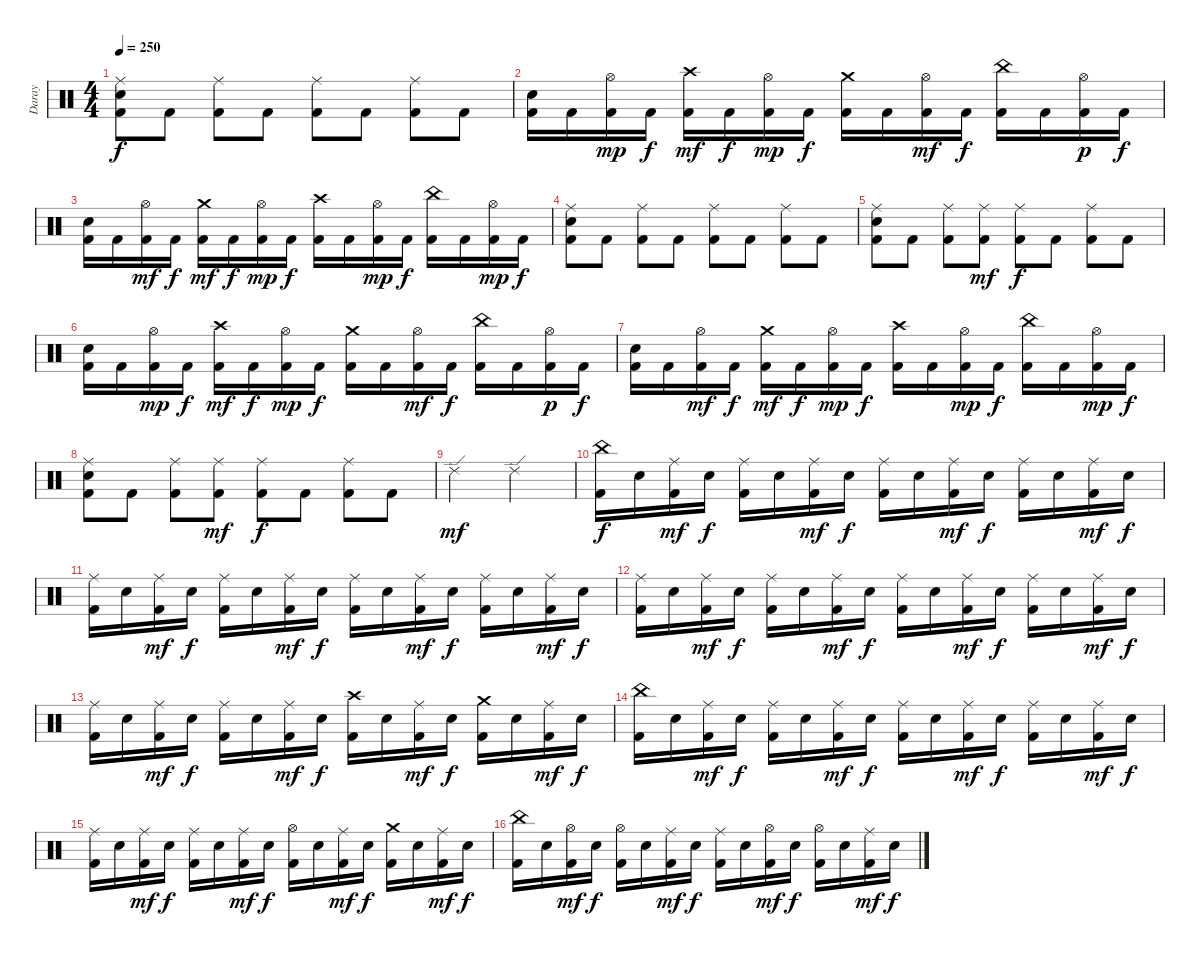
\track ("Daray" "Daray") {instrument percussion}
\staff {score}
\articulation defaults
\ts (4 4)
\tempo 250
\clef neutral
\ks c
("Ride (middle)" "Electric Snare (hit)" "Kick (hit) 2").8{dy f} "Kick (hit) 2".8 ("Ride (middle)" "Kick (hit) 2").8 "Kick (hit) 2".8 ("Ride (middle)" "Kick (hit) 2").8 "Kick (hit) 2".8 ("Ride (middle)" "Kick (hit) 2").8 "Kick (hit) 2".8 |
("Electric Snare (hit)" "Kick (hit) 2").16 "Kick (hit) 2".16 ("Hi-Hat (open)" "Kick (hit) 2").16{dy mp} "Kick (hit) 2".16{dy f} ("Crash high (hit)" "Kick (hit) 2").16{dy mf} "Kick (hit) 2".16{dy f} ("Hi-Hat (open)" "Kick (hit) 2").16{dy mp} "Kick (hit) 2".16{dy f} ("Crash medium (hit)" "Kick (hit) 2").16 "Kick (hit) 2".16 ("Hi-Hat (open)" "Kick (hit) 2").16{dy mf} "Kick (hit) 2".16{dy f} ("China (hit)" "Kick (hit) 2").16 "Kick (hit) 2".16 ("Hi-Hat (open)" "Kick (hit) 2").16{dy p} "Kick (hit) 2".16{dy f} |
("Electric Snare (hit)" "Kick (hit) 2").16 "Kick (hit) 2".16 ("Hi-Hat (open)" "Kick (hit) 2").16{dy mf} "Kick (hit) 2".16{dy f} ("Crash medium (hit)" "Kick (hit) 2").16{dy mf} "Kick (hit) 2".16{dy f} ("Hi-Hat (open)" "Kick (hit) 2").16{dy mp} "Kick (hit) 2".16{dy f} ("Crash high (hit)" "Kick (hit) 2").16 "Kick (hit) 2".16 ("Hi-Hat (open)" "Kick (hit) 2").16{dy mp} "Kick (hit) 2".16{dy f} ("China (hit)" "Kick (hit) 2").16 "Kick (hit) 2".16 ("Hi-Hat (open)" "Kick (hit) 2").16{dy mp} "Kick (hit) 2".16{dy f} |
("Ride (middle)" "Electric Snare (hit)" "Kick (hit) 2").8 "Kick (hit) 2".8 ("Ride (middle)" "Kick (hit) 2").8 "Kick (hit) 2".8 ("Ride (middle)" "Kick (hit) 2").8 "Kick (hit) 2".8 ("Ride (middle)" "Kick (hit) 2").8 "Kick (hit) 2".8 |
("Ride (middle)" "Electric Snare (hit)" "Kick (hit) 2").8 "Kick (hit) 2".8 ("Ride (middle)" "Kick (hit) 2").8 ("Ride (middle)" "Kick (hit) 2").8{dy mf} ("Ride (middle)" "Kick (hit) 2").8{dy f} "Kick (hit) 2".8 ("Ride (middle)" "Kick (hit) 2").8 "Kick (hit) 2".8 |
("Electric Snare (hit)" "Kick (hit) 2").16 "Kick (hit) 2".16 ("Hi-Hat (open)" "Kick (hit) 2").16{dy mp} "Kick (hit) 2".16{dy f} ("Crash high (hit)" "Kick (hit) 2").16{dy mf} "Kick (hit) 2".16{dy f} ("Hi-Hat (open)" "Kick (hit) 2").16{dy mp} "Kick (hit) 2".16{dy f} ("Crash medium (hit)" "Kick (hit) 2").16 "Kick (hit) 2".16 ("Hi-Hat (open)" "Kick (hit) 2").16{dy mf} "Kick (hit) 2".16{dy f} ("China (hit)" "Kick (hit) 2").16 "Kick (hit) 2".16 ("Hi-Hat (open)" "Kick (hit) 2").16{dy p} "Kick (hit) 2".16{dy f} |
("Electric Snare (hit)" "Kick (hit) 2").16 "Kick (hit) 2".16 ("Hi-Hat (open)" "Kick (hit) 2").16{dy mf} "Kick (hit) 2".16{dy f} ("Crash medium (hit)" "Kick (hit) 2").16{dy mf} "Kick (hit) 2".16{dy f} ("Hi-Hat (open)" "Kick (hit) 2").16{dy mp} "Kick (hit) 2".16{dy f} ("Crash high (hit)" "Kick (hit) 2").16 "Kick (hit) 2".16 ("Hi-Hat (open)" "Kick (hit) 2").16{dy mp} "Kick (hit) 2".16{dy f} ("China (hit)" "Kick (hit) 2").16 "Kick (hit) 2".16 ("Hi-Hat (open)" "Kick (hit) 2").16{dy mp} "Kick (hit) 2".16{dy f} |
("Ride (middle)" "Electric Snare (hit)" "Kick (hit) 2").8 "Kick (hit) 2".8 ("Ride (middle)" "Kick (hit) 2").8 ("Ride (middle)" "Kick (hit) 2").8{dy mf} ("Ride (middle)" "Kick (hit) 2").8{dy f} "Kick (hit) 2".8 ("Ride (middle)" "Kick (hit) 2").8 "Kick (hit) 2".8 |
"Ride (edge) 2".2{dy mf} "Ride (edge) 2".2 |
("China (hit)" "Kick (hit) 2").16{dy f} "Electric Snare (hit)".16 ("Ride (middle)" "Kick (hit) 2").16{dy mf} "Electric Snare (hit)".16{dy f} ("Ride (middle)" "Kick (hit) 2").16 "Electric Snare (hit)".16 ("Ride (middle)" "Kick (hit) 2").16{dy mf} "Electric Snare (hit)".16{dy f} ("Ride (middle)" "Kick (hit) 2").16 "Electric Snare (hit)".16 ("Ride (middle)" "Kick (hit) 2").16{dy mf} "Electric Snare (hit)".16{dy f} ("Ride (middle)" "Kick (hit) 2").16 "Electric Snare (hit)".16 ("Ride (middle)" "Kick (hit) 2").16{dy mf} "Electric Snare (hit)".16{dy f} |
("Ride (middle)" "Kick (hit) 2").16 "Electric Snare (hit)".16 ("Ride (middle)" "Kick (hit) 2").16{dy mf} "Electric Snare (hit)".16{dy f} ("Ride (middle)" "Kick (hit) 2").16 "Electric Snare (hit)".16 ("Ride (middle)" "Kick (hit) 2").16{dy mf} "Electric Snare (hit)".16{dy f} ("Ride (middle)" "Kick (hit) 2").16 "Electric Snare (hit)".16 ("Ride (middle)" "Kick (hit) 2").16{dy mf} "Electric Snare (hit)".16{dy f} ("Ride (middle)" "Kick (hit) 2").16 "Electric Snare (hit)".16 ("Ride (middle)" "Kick (hit) 2").16{dy mf} "Electric Snare (hit)".16{dy f} |
("Ride (middle)" "Kick (hit) 2").16 "Electric Snare (hit)".16 ("Ride (middle)" "Kick (hit) 2").16{dy mf} "Electric Snare (hit)".16{dy f} ("Ride (middle)" "Kick (hit) 2").16 "Electric Snare (hit)".16 ("Ride (middle)" "Kick (hit) 2").16{dy mf} "Electric Snare (hit)".16{dy f} ("Ride (middle)" "Kick (hit) 2").16 "Electric Snare (hit)".16 ("Ride (middle)" "Kick (hit) 2").16{dy mf} "Electric Snare (hit)".16{dy f} ("Ride (middle)" "Kick (hit) 2").16 "Electric Snare (hit)".16 ("Ride (middle)" "Kick (hit) 2").16{dy mf} "Electric Snare (hit)".16{dy f} |
("Ride (middle)" "Kick (hit) 2").16 "Electric Snare (hit)".16 ("Ride (middle)" "Kick (hit) 2").16{dy mf} "Electric Snare (hit)".16{dy f} ("Ride (middle)" "Kick (hit) 2").16 "Electric Snare (hit)".16 ("Ride (middle)" "Kick (hit) 2").16{dy mf} "Electric Snare (hit)".16{dy f} ("Crash high (hit)" "Kick (hit) 2").16 "Electric Snare (hit)".16 ("Ride (middle)" "Kick (hit) 2").16{dy mf} "Electric Snare (hit)".16{dy f} ("Crash medium (hit)" "Kick (hit) 2").16 "Electric Snare (hit)".16 ("Ride (middle)" "Kick (hit) 2").16{dy mf} "Electric Snare (hit)".16{dy f} |
("China (hit)" "Kick (hit) 2").16 "Electric Snare (hit)".16 ("Ride (middle)" "Kick (hit) 2").16{dy mf} "Electric Snare (hit)".16{dy f} ("Ride (middle)" "Kick (hit) 2").16 "Electric Snare (hit)".16 ("Ride (middle)" "Kick (hit) 2").16{dy mf} "Electric Snare (hit)".16{dy f} ("Ride (middle)" "Kick (hit) 2").16 "Electric Snare (hit)".16 ("Ride (middle)" "Kick (hit) 2").16{dy mf} "Electric Snare (hit)".16{dy f} ("Ride (middle)" "Kick (hit) 2").16 "Electric Snare (hit)".16 ("Ride (middle)" "Kick (hit) 2").16{dy mf} "Electric Snare (hit)".16{dy f} |
("Ride (middle)" "Kick (hit) 2").16 "Electric Snare (hit)".16 ("Ride (middle)" "Kick (hit) 2").16{dy mf} "Electric Snare (hit)".16{dy f} ("Ride (middle)" "Kick (hit) 2").16 "Electric Snare (hit)".16 ("Ride (middle)" "Kick (hit) 2").16{dy mf} "Electric Snare (hit)".16{dy f} ("Hi-Hat (open)" "Kick (hit) 2").16 "Electric Snare (hit)".16 ("Ride (middle)" "Kick (hit) 2").16{dy mf} "Electric Snare (hit)".16{dy f} ("Crash medium (hit)" "Kick (hit) 2").16 "Electric Snare (hit)".16 ("Ride (middle)" "Kick (hit) 2").16{dy mf} "Electric Snare (hit)".16{dy f} |
("China (hit)" "Kick (hit) 2").16 "Electric Snare (hit)".16 ("Hi-Hat (open)" "Kick (hit) 2").16{dy mf} "Electric Snare (hit)".16{dy f} ("Hi-Hat (open)" "Kick (hit) 2").16 "Electric Snare (hit)".16 ("Ride (middle)" "Kick (hit) 2").16{dy mf} "Electric Snare (hit)".16{dy f} ("Ride (middle)" "Kick (hit) 2").16 "Electric Snare (hit)".16 ("Hi-Hat (open)" "Kick (hit) 2").16{dy mf} "Electric Snare (hit)".16{dy f} ("Hi-Hat (open)" "Kick (hit) 2").16 "Electric Snare (hit)".16 ("Ride (middle)" "Kick (hit) 2").16{dy mf} "Electric Snare (hit)".16{dy f}
